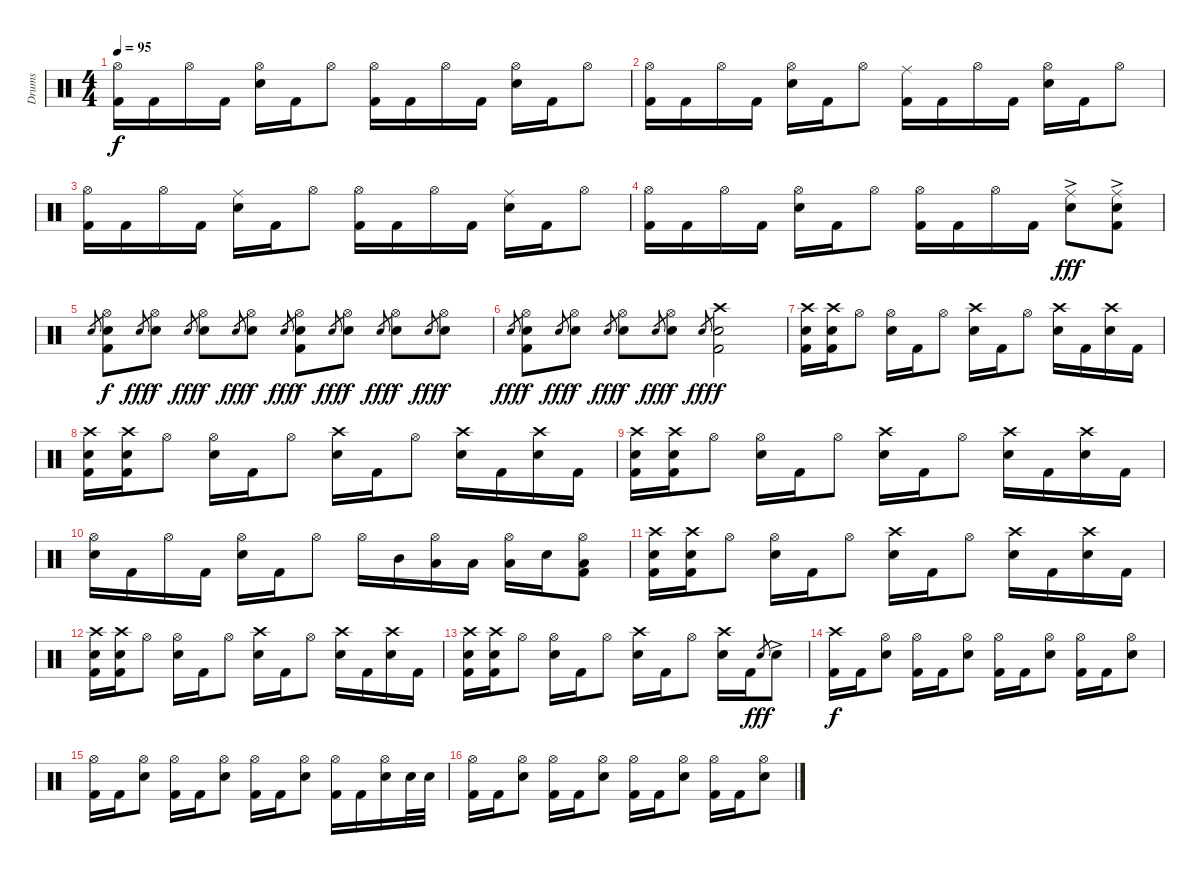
\track ("Drums" "Drums") {instrument percussion}
\staff {score}
\articulation defaults
\ts (4 4)
\tempo 95
\clef neutral
\ks c
("Hi-Hat (open)" "Kick (hit) 2").16{dy f} "Kick (hit) 2".16 "Hi-Hat (open)".16 "Kick (hit) 2".16 ("Hi-Hat (open)" "Electric Snare (hit)").16 "Kick (hit) 2".16 "Hi-Hat (open)".8 ("Hi-Hat (open)" "Kick (hit) 2").16 "Kick (hit) 2".16 "Hi-Hat (open)".16 "Kick (hit) 2".16 ("Hi-Hat (open)" "Electric Snare (hit)").16 "Kick (hit) 2".16 "Hi-Hat (open)".8 |
("Hi-Hat (open)" "Kick (hit) 2").16 "Kick (hit) 2".16 "Hi-Hat (open)".16 "Kick (hit) 2".16 ("Hi-Hat (open)" "Electric Snare (hit)").16 "Kick (hit) 2".16 "Hi-Hat (open)".8 ("Ride (middle)" "Kick (hit) 2").16 "Kick (hit) 2".16 "Hi-Hat (open)".16 "Kick (hit) 2".16 ("Hi-Hat (open)" "Electric Snare (hit)").16 "Kick (hit) 2".16 "Hi-Hat (open)".8 |
("Hi-Hat (open)" "Kick (hit) 2").16 "Kick (hit) 2".16 "Hi-Hat (open)".16 "Kick (hit) 2".16 ("Ride (middle)" "Electric Snare (hit)").16 "Kick (hit) 2".16 "Hi-Hat (open)".8 ("Hi-Hat (open)" "Kick (hit) 2").16 "Kick (hit) 2".16 "Hi-Hat (open)".16 "Kick (hit) 2".16 ("Ride (middle)" "Electric Snare (hit)").16 "Kick (hit) 2".16 "Hi-Hat (open)".8 |
("Hi-Hat (open)" "Kick (hit) 2").16 "Kick (hit) 2".16 "Hi-Hat (open)".16 "Kick (hit) 2".16 ("Hi-Hat (open)" "Electric Snare (hit)").16 "Kick (hit) 2".16 "Hi-Hat (open)".8 ("Hi-Hat (open)" "Kick (hit) 2").16 "Kick (hit) 2".16 "Hi-Hat (open)".16 "Kick (hit) 2".16 ("Ride (middle)" "Electric Snare (hit)"{ac}).8{dy fff} ("Ride (middle)" "Electric Snare (hit)"{ac} "Kick (hit) 2").8 |
"Electric Snare (hit)".8{gr} ("Hi-Hat (open)" "Electric Snare (hit)" "Kick (hit) 2").8{dy f} "Electric Snare (hit)".8{gr dy fff} ("Hi-Hat (open)" "Electric Snare (hit)").8{dy f} "Electric Snare (hit)".8{gr dy fff} ("Hi-Hat (open)" "Electric Snare (hit)").8{dy f} "Electric Snare (hit)".8{gr dy fff} ("Hi-Hat (open)" "Electric Snare (hit)").8{dy f} "Electric Snare (hit)".8{gr dy fff} ("Hi-Hat (open)" "Electric Snare (hit)" "Kick (hit) 2").8{dy f} "Electric Snare (hit)".8{gr dy fff} ("Hi-Hat (open)" "Electric Snare (hit)").8{dy f} "Electric Snare (hit)".8{gr dy fff} ("Hi-Hat (open)" "Electric Snare (hit)").8{dy f} "Electric Snare (hit)".8{gr dy fff} ("Hi-Hat (open)" "Electric Snare (hit)").8{dy f} |
"Electric Snare (hit)".8{gr dy fff} ("Hi-Hat (open)" "Electric Snare (hit)" "Kick (hit) 2").8{dy f} "Electric Snare (hit)".8{gr dy fff} ("Hi-Hat (open)" "Electric Snare (hit)").8{dy f} "Electric Snare (hit)".8{gr dy fff} ("Hi-Hat (open)" "Electric Snare (hit)").8{dy f} "Electric Snare (hit)".8{gr dy fff} ("Hi-Hat (open)" "Electric Snare (hit)").8{dy f} "Electric Snare (hit)".8{gr dy fff} ("Crash high (hit)" "Electric Snare (hit)" "Kick (hit) 2").2{dy f} |
("Crash high (hit)" "Electric Snare (hit)" "Kick (hit) 2").16 ("Crash high (hit)" "Electric Snare (hit)" "Kick (hit) 2").16 "Hi-Hat (open)".8 ("Hi-Hat (open)" "Electric Snare (hit)").16 "Kick (hit) 2".16 "Hi-Hat (open)".8 ("Crash high (hit)" "Electric Snare (hit)").16 "Kick (hit) 2".16 "Hi-Hat (open)".8 ("Crash high (hit)" "Electric Snare (hit)").16 "Kick (hit) 2".16 ("Crash high (hit)" "Electric Snare (hit)").16 "Kick (hit) 2".16 |
("Crash high (hit)" "Electric Snare (hit)" "Kick (hit) 2").16 ("Crash high (hit)" "Electric Snare (hit)" "Kick (hit) 2").16 "Hi-Hat (open)".8 ("Hi-Hat (open)" "Electric Snare (hit)").16 "Kick (hit) 2".16 "Hi-Hat (open)".8 ("Crash high (hit)" "Electric Snare (hit)").16 "Kick (hit) 2".16 "Hi-Hat (open)".8 ("Crash high (hit)" "Electric Snare (hit)").16 "Kick (hit) 2".16 ("Crash high (hit)" "Electric Snare (hit)").16 "Kick (hit) 2".16 |
("Crash high (hit)" "Electric Snare (hit)" "Kick (hit) 2").16 ("Crash high (hit)" "Electric Snare (hit)" "Kick (hit) 2").16 "Hi-Hat (open)".8 ("Hi-Hat (open)" "Electric Snare (hit)").16 "Kick (hit) 2".16 "Hi-Hat (open)".8 ("Crash high (hit)" "Electric Snare (hit)").16 "Kick (hit) 2".16 "Hi-Hat (open)".8 ("Crash high (hit)" "Electric Snare (hit)").16 "Kick (hit) 2".16 ("Crash high (hit)" "Electric Snare (hit)").16 "Kick (hit) 2".16 |
("Hi-Hat (open)" "Electric Snare (hit)").16 "Kick (hit) 2".16 "Hi-Hat (open)".16 "Kick (hit) 2".16 ("Hi-Hat (open)" "Electric Snare (hit)").16 "Kick (hit) 2".16 "Hi-Hat (open)".8 "Hi-Hat (open)".16 "Mid Tom (hit)".16 ("Hi-Hat (open)" "Low Tom (hit)").16 "Low Floor Tom (hit)".16 ("Hi-Hat (open)" "Low Floor Tom (hit)").16 "Electric Snare (hit)".16 ("Hi-Hat (open)" "Low Floor Tom (hit)" "Kick (hit) 2").8 |
("Crash high (hit)" "Electric Snare (hit)" "Kick (hit) 2").16 ("Crash high (hit)" "Electric Snare (hit)" "Kick (hit) 2").16 "Hi-Hat (open)".8 ("Hi-Hat (open)" "Electric Snare (hit)").16 "Kick (hit) 2".16 "Hi-Hat (open)".8 ("Crash high (hit)" "Electric Snare (hit)").16 "Kick (hit) 2".16 "Hi-Hat (open)".8 ("Crash high (hit)" "Electric Snare (hit)").16 "Kick (hit) 2".16 ("Crash high (hit)" "Electric Snare (hit)").16 "Kick (hit) 2".16 |
("Crash high (hit)" "Electric Snare (hit)" "Kick (hit) 2").16 ("Crash high (hit)" "Electric Snare (hit)" "Kick (hit) 2").16 "Hi-Hat (open)".8 ("Hi-Hat (open)" "Electric Snare (hit)").16 "Kick (hit) 2".16 "Hi-Hat (open)".8 ("Crash high (hit)" "Electric Snare (hit)").16 "Kick (hit) 2".16 "Hi-Hat (open)".8 ("Crash high (hit)" "Electric Snare (hit)").16 "Kick (hit) 2".16 ("Crash high (hit)" "Electric Snare (hit)").16 "Kick (hit) 2".16 |
("Crash high (hit)" "Electric Snare (hit)" "Kick (hit) 2").16 ("Crash high (hit)" "Electric Snare (hit)" "Kick (hit) 2").16 "Hi-Hat (open)".8 ("Hi-Hat (open)" "Electric Snare (hit)").16 "Kick (hit) 2".16 "Hi-Hat (open)".8 ("Crash high (hit)" "Electric Snare (hit)").16 "Kick (hit) 2".16 "Hi-Hat (open)".8 ("Crash high (hit)" "Electric Snare (hit)").16 "Kick (hit) 2".16 "Electric Snare (hit)".8{gr dy fff} "Electric Snare (hit)"{ac}.8 |
("Crash high (hit)" "Kick (hit) 2").16{dy f} "Kick (hit) 2".16 ("Hi-Hat (open)" "Electric Snare (hit)").8 ("Hi-Hat (open)" "Kick (hit) 2").16 "Kick (hit) 2".16 ("Hi-Hat (open)" "Electric Snare (hit)").8 ("Hi-Hat (open)" "Kick (hit) 2").16 "Kick (hit) 2".16 ("Hi-Hat (open)" "Electric Snare (hit)").8 ("Hi-Hat (open)" "Kick (hit) 2").16 "Kick (hit) 2".16 ("Hi-Hat (open)" "Electric Snare (hit)").8 |
("Hi-Hat (open)" "Kick (hit) 2").16 "Kick (hit) 2".16 ("Hi-Hat (open)" "Electric Snare (hit)").8 ("Hi-Hat (open)" "Kick (hit) 2").16 "Kick (hit) 2".16 ("Hi-Hat (open)" "Electric Snare (hit)").8 ("Hi-Hat (open)" "Kick (hit) 2").16 "Kick (hit) 2".16 ("Hi-Hat (open)" "Electric Snare (hit)").8 ("Hi-Hat (open)" "Kick (hit) 2").16 "Kick (hit) 2".16 ("Hi-Hat (open)" "Electric Snare (hit)").16 "Electric Snare (hit)".32 "Electric Snare (hit)".32 |
("Hi-Hat (open)" "Kick (hit) 2").16 "Kick (hit) 2".16 ("Hi-Hat (open)" "Electric Snare (hit)").8 ("Hi-Hat (open)" "Kick (hit) 2").16 "Kick (hit) 2".16 ("Hi-Hat (open)" "Electric Snare (hit)").8 ("Hi-Hat (open)" "Kick (hit) 2").16 "Kick (hit) 2".16 ("Hi-Hat (open)" "Electric Snare (hit)").8 ("Hi-Hat (open)" "Kick (hit) 2").16 "Kick (hit) 2".16 ("Hi-Hat (open)" "Electric Snare (hit)").8
